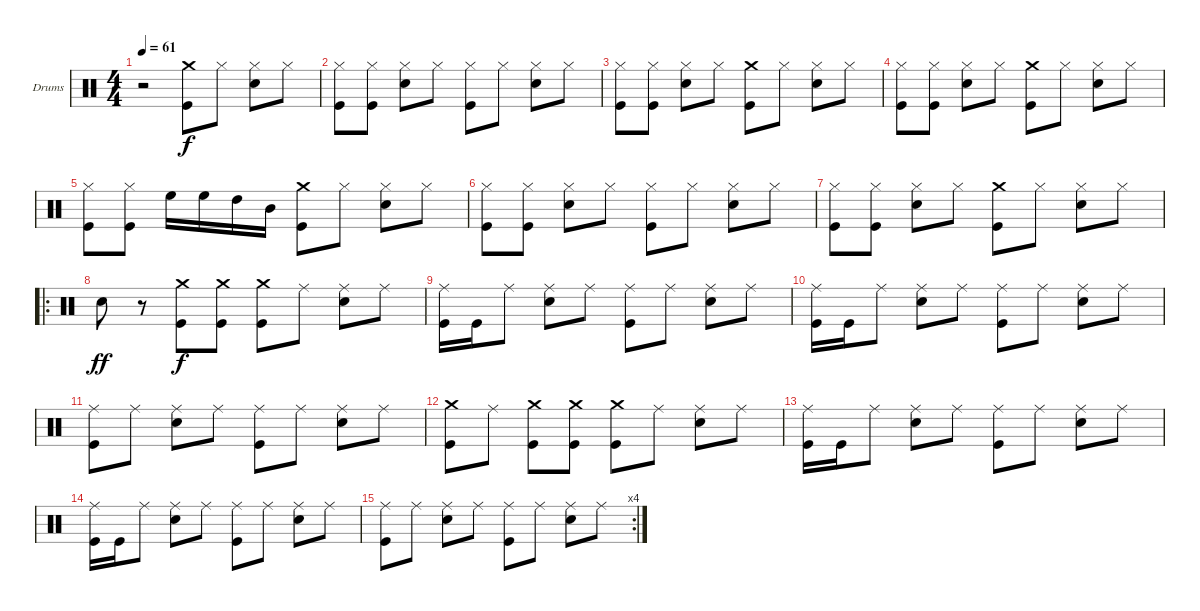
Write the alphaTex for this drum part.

\bracketExtendMode groupsimilarinstruments
\firstSystemTrackNameOrientation horizontal
\otherSystemsTrackNameOrientation horizontal
\track ("Drumkit" "Drums") {instrument percussion}
\staff {score}
\articulation defaults
\ts (4 4)
\tempo 61
\clef neutral
\ks c
r.2{dy ff} ("Crash medium (hit)" "Kick (hit)").8{dy f} "Hi-Hat (closed)".8 ("Hi-Hat (closed)" "Snare (hit) 2").8 "Hi-Hat (closed)".8 |
("Hi-Hat (closed)" "Kick (hit)").8 ("Hi-Hat (closed)" "Kick (hit)").8 ("Hi-Hat (closed)" "Snare (hit) 2").8 "Hi-Hat (closed)".8 ("Hi-Hat (closed)" "Kick (hit)").8 "Hi-Hat (closed)".8 ("Hi-Hat (closed)" "Snare (hit) 2").8 "Hi-Hat (closed)".8 |
("Hi-Hat (closed)" "Kick (hit)").8 ("Hi-Hat (closed)" "Kick (hit)").8 ("Hi-Hat (closed)" "Snare (hit) 2").8 "Hi-Hat (closed)".8 ("Crash medium (hit)" "Kick (hit)").8 "Hi-Hat (closed)".8 ("Hi-Hat (closed)" "Snare (hit) 2").8 "Hi-Hat (closed)".8 |
("Hi-Hat (closed)" "Kick (hit)").8 ("Hi-Hat (closed)" "Kick (hit)").8 ("Hi-Hat (closed)" "Snare (hit) 2").8 "Hi-Hat (closed)".8 ("Crash medium (hit)" "Kick (hit)").8 "Hi-Hat (closed)".8 ("Hi-Hat (closed)" "Snare (hit) 2").8 "Hi-Hat (closed)".8 |
("Hi-Hat (closed)" "Kick (hit)").8 ("Hi-Hat (closed)" "Kick (hit)").8 "High Floor Tom (hit)".16 "High Floor Tom (hit)".16 "High Tom (hit)".16 "Mid Tom (hit)".16 ("Crash medium (hit)" "Kick (hit)").8 "Hi-Hat (closed)".8 ("Hi-Hat (closed)" "Snare (hit) 2").8 "Hi-Hat (closed)".8 |
("Hi-Hat (closed)" "Kick (hit)").8 ("Hi-Hat (closed)" "Kick (hit)").8 ("Hi-Hat (closed)" "Snare (hit) 2").8 "Hi-Hat (closed)".8 ("Hi-Hat (closed)" "Kick (hit)").8 "Hi-Hat (closed)".8 ("Hi-Hat (closed)" "Snare (hit) 2").8 "Hi-Hat (closed)".8 |
("Hi-Hat (closed)" "Kick (hit)").8 ("Hi-Hat (closed)" "Kick (hit)").8 ("Hi-Hat (closed)" "Snare (hit) 2").8 "Hi-Hat (closed)".8 ("Crash medium (hit)" "Kick (hit)").8 "Hi-Hat (closed)".8 ("Hi-Hat (closed)" "Snare (hit) 2").8 "Hi-Hat (closed)".8 |
\ro "Snare (hit) 2".8{dy ff}
r.8 ("Crash medium (hit)" "Kick (hit)").8{dy f} ("Crash medium (hit)" "Kick (hit)").8 ("Crash medium (hit)" "Kick (hit)").8 "Ride (middle)".8 ("Ride (middle)" "Snare (hit) 2").8 "Ride (middle)".8 |
("Ride (middle)" "Kick (hit)").16 "Kick (hit)".16 "Ride (middle)".8 ("Ride (middle)" "Snare (hit) 2").8 "Ride (middle)".8 ("Ride (middle)" "Kick (hit)").8 "Ride (middle)".8 ("Ride (middle)" "Snare (hit) 2").8 "Ride (middle)".8 |
("Ride (middle)" "Kick (hit)").16 "Kick (hit)".16 "Ride (middle)".8 ("Ride (middle)" "Snare (hit) 2").8 "Ride (middle)".8 ("Ride (middle)" "Kick (hit)").8 "Ride (middle)".8 ("Ride (middle)" "Snare (hit) 2").8 "Ride (middle)".8 |
("Ride (middle)" "Kick (hit)").8 "Ride (middle)".8 ("Ride (middle)" "Snare (hit) 2").8 "Ride (middle)".8 ("Ride (middle)" "Kick (hit)").8 "Ride (middle)".8 ("Ride (middle)" "Snare (hit) 2").8 "Ride (middle)".8 |
("Crash medium (hit)" "Kick (hit)").8 "Ride (middle)".8 ("Crash medium (hit)" "Kick (hit)").8 ("Crash medium (hit)" "Kick (hit)").8 ("Crash medium (hit)" "Kick (hit)").8 "Ride (middle)".8 ("Ride (middle)" "Snare (hit) 2").8 "Ride (middle)".8 |
("Ride (middle)" "Kick (hit)").16 "Kick (hit)".16 "Ride (middle)".8 ("Ride (middle)" "Snare (hit) 2").8 "Ride (middle)".8 ("Ride (middle)" "Kick (hit)").8 "Ride (middle)".8 ("Ride (middle)" "Snare (hit) 2").8 "Ride (middle)".8 |
("Ride (middle)" "Kick (hit)").16 "Kick (hit)".16 "Ride (middle)".8 ("Ride (middle)" "Snare (hit) 2").8 "Ride (middle)".8 ("Ride (middle)" "Kick (hit)").8 "Ride (middle)".8 ("Ride (middle)" "Snare (hit) 2").8 "Ride (middle)".8 |
\rc 4
("Ride (middle)" "Kick (hit)").8 "Ride (middle)".8 ("Ride (middle)" "Snare (hit) 2").8 "Ride (middle)".8 ("Ride (middle)" "Kick (hit)").8 "Ride (middle)".8 ("Ride (middle)" "Snare (hit) 2").8 "Ride (middle)".8
